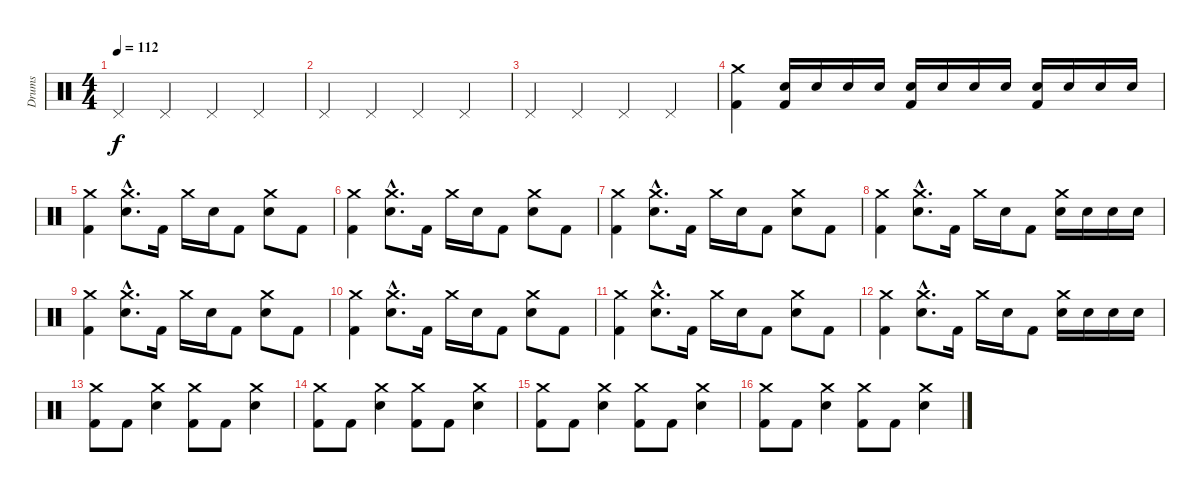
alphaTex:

\track ("Drums" "Drums") {instrument percussion}
\staff {score}
\articulation defaults
\ts (4 4)
\tempo 112
\clef neutral
\ks c "Pedal Hi-Hat (hit)".4{dy f} "Pedal Hi-Hat (hit)".4 "Pedal Hi-Hat (hit)".4 "Pedal Hi-Hat (hit)".4
|
"Pedal Hi-Hat (hit)".4 "Pedal Hi-Hat (hit)".4 "Pedal Hi-Hat (hit)".4 "Pedal Hi-Hat (hit)".4 |
"Pedal Hi-Hat (hit)".4 "Pedal Hi-Hat (hit)".4 "Pedal Hi-Hat (hit)".4 "Pedal Hi-Hat (hit)".4 |
("Crash medium (hit)" "Kick (hit) 2").4 ("Snare (hit) 2" "Kick (hit) 2").16 "Snare (hit) 2".16 "Snare (hit) 2".16 "Snare (hit) 2".16 ("Snare (hit) 2" "Kick (hit) 2").16 "Snare (hit) 2".16 "Snare (hit) 2".16 "Snare (hit) 2".16 ("Snare (hit) 2" "Kick (hit) 2").16 "Snare (hit) 2".16 "Snare (hit) 2".16 "Snare (hit) 2".16 |
("Crash medium (hit)" "Kick (hit) 2").4 ("Crash medium (hit)"{hac} "Snare (hit) 2"{hac}).8{d} "Kick (hit) 2".16 "Crash medium (hit)".16 "Snare (hit) 2".16 "Kick (hit) 2".8 ("Crash medium (hit)" "Snare (hit) 2").8 "Kick (hit) 2".8 |
("Crash medium (hit)" "Kick (hit) 2").4 ("Crash medium (hit)"{hac} "Snare (hit) 2"{hac}).8{d} "Kick (hit) 2".16 "Crash medium (hit)".16 "Snare (hit) 2".16 "Kick (hit) 2".8 ("Crash medium (hit)" "Snare (hit) 2").8 "Kick (hit) 2".8 |
("Crash medium (hit)" "Kick (hit) 2").4 ("Crash medium (hit)"{hac} "Snare (hit) 2"{hac}).8{d} "Kick (hit) 2".16 "Crash medium (hit)".16 "Snare (hit) 2".16 "Kick (hit) 2".8 ("Crash medium (hit)" "Snare (hit) 2").8 "Kick (hit) 2".8 |
("Crash medium (hit)" "Kick (hit) 2").4 ("Crash medium (hit)"{hac} "Snare (hit) 2"{hac}).8{d} "Kick (hit) 2".16 "Crash medium (hit)".16 "Snare (hit) 2".16 "Kick (hit) 2".8 ("Crash medium (hit)" "Snare (hit) 2").16 "Snare (hit) 2".16 "Snare (hit) 2".16 "Snare (hit) 2".16 |
("Crash medium (hit)" "Kick (hit) 2").4 ("Crash medium (hit)"{hac} "Snare (hit) 2"{hac}).8{d} "Kick (hit) 2".16 "Crash medium (hit)".16 "Snare (hit) 2".16 "Kick (hit) 2".8 ("Crash medium (hit)" "Snare (hit) 2").8 "Kick (hit) 2".8 |
("Crash medium (hit)" "Kick (hit) 2").4 ("Crash medium (hit)"{hac} "Snare (hit) 2"{hac}).8{d} "Kick (hit) 2".16 "Crash medium (hit)".16 "Snare (hit) 2".16 "Kick (hit) 2".8 ("Crash medium (hit)" "Snare (hit) 2").8 "Kick (hit) 2".8 |
("Crash medium (hit)" "Kick (hit) 2").4 ("Crash medium (hit)"{hac} "Snare (hit) 2"{hac}).8{d} "Kick (hit) 2".16 "Crash medium (hit)".16 "Snare (hit) 2".16 "Kick (hit) 2".8 ("Crash medium (hit)" "Snare (hit) 2").8 "Kick (hit) 2".8 |
("Crash medium (hit)" "Kick (hit) 2").4 ("Crash medium (hit)"{hac} "Snare (hit) 2"{hac}).8{d} "Kick (hit) 2".16 "Crash medium (hit)".16 "Snare (hit) 2".16 "Kick (hit) 2".8 ("Crash medium (hit)" "Snare (hit) 2").16 "Snare (hit) 2".16 "Snare (hit) 2".16 "Snare (hit) 2".16 |
("Crash medium (hit)" "Kick (hit) 2").8 "Kick (hit) 2".8 ("Crash medium (hit)" "Snare (hit) 2").4 ("Crash medium (hit)" "Kick (hit) 2").8 "Kick (hit) 2".8 ("Crash medium (hit)" "Snare (hit) 2").4 |
("Crash medium (hit)" "Kick (hit) 2").8 "Kick (hit) 2".8 ("Crash medium (hit)" "Snare (hit) 2").4 ("Crash medium (hit)" "Kick (hit) 2").8 "Kick (hit) 2".8 ("Crash medium (hit)" "Snare (hit) 2").4 |
("Crash medium (hit)" "Kick (hit) 2").8 "Kick (hit) 2".8 ("Crash medium (hit)" "Snare (hit) 2").4 ("Crash medium (hit)" "Kick (hit) 2").8 "Kick (hit) 2".8 ("Crash medium (hit)" "Snare (hit) 2").4 |
("Crash medium (hit)" "Kick (hit) 2").8 "Kick (hit) 2".8 ("Crash medium (hit)" "Snare (hit) 2").4 ("Crash medium (hit)" "Kick (hit) 2").8 "Kick (hit) 2".8 ("Crash medium (hit)" "Snare (hit) 2").4
